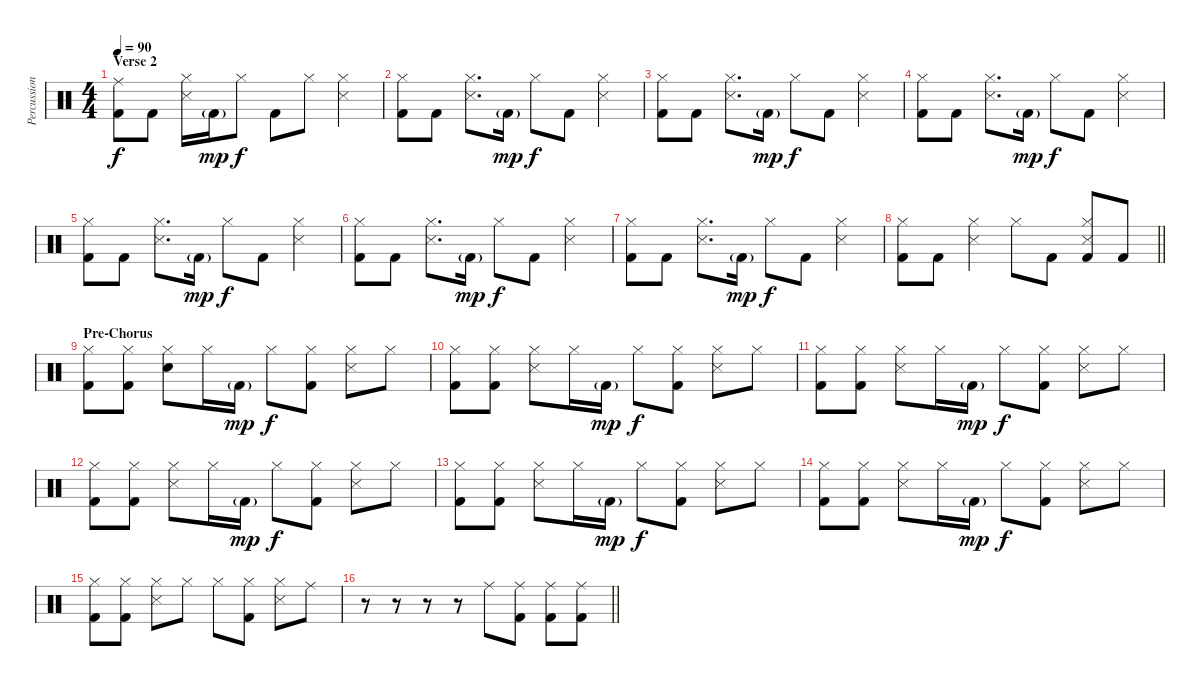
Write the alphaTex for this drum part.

\track ("Percussion" "Percussion") {instrument percussion}
\staff {score}
\articulation defaults
\ts (4 4)
\section ("" "Verse 2")
\tempo 90
\clef neutral
\ks c
("Ride (middle)" "Kick (hit) 2").8{dy f} "Kick (hit) 2".8 ("Hi-Hat (closed)" "Snare (side stick) 3").16 "Kick (hit) 2"{g}.16{dy mp} "Hi-Hat (closed)".8{dy f} "Kick (hit) 2".8 "Hi-Hat (closed)".8 ("Hi-Hat (closed)" "Snare (side stick) 3").4 |
("Hi-Hat (closed)" "Kick (hit) 2").8 "Kick (hit) 2".8 ("Hi-Hat (closed)" "Snare (side stick) 3").8{d} "Kick (hit) 2"{g}.16{dy mp} "Hi-Hat (closed)".8{dy f} "Kick (hit) 2".8 ("Hi-Hat (closed)" "Snare (side stick) 3").4 |
("Hi-Hat (closed)" "Kick (hit) 2").8 "Kick (hit) 2".8 ("Hi-Hat (closed)" "Snare (side stick) 3").8{d} "Kick (hit) 2"{g}.16{dy mp} "Hi-Hat (closed)".8{dy f} "Kick (hit) 2".8 ("Hi-Hat (closed)" "Snare (side stick) 3").4 |
("Hi-Hat (closed)" "Kick (hit) 2").8 "Kick (hit) 2".8 ("Hi-Hat (closed)" "Snare (side stick) 3").8{d} "Kick (hit) 2"{g}.16{dy mp} "Hi-Hat (closed)".8{dy f} "Kick (hit) 2".8 ("Hi-Hat (closed)" "Snare (side stick) 3").4 |
("Hi-Hat (closed)" "Kick (hit) 2").8 "Kick (hit) 2".8 ("Hi-Hat (closed)" "Snare (side stick) 3").8{d} "Kick (hit) 2"{g}.16{dy mp} "Hi-Hat (closed)".8{dy f} "Kick (hit) 2".8 ("Hi-Hat (closed)" "Snare (side stick) 3").4 |
("Hi-Hat (closed)" "Kick (hit) 2").8 "Kick (hit) 2".8 ("Hi-Hat (closed)" "Snare (side stick) 3").8{d} "Kick (hit) 2"{g}.16{dy mp} "Hi-Hat (closed)".8{dy f} "Kick (hit) 2".8 ("Hi-Hat (closed)" "Snare (side stick) 3").4 |
("Hi-Hat (closed)" "Kick (hit) 2").8 "Kick (hit) 2".8 ("Hi-Hat (closed)" "Snare (side stick) 3").8{d} "Kick (hit) 2"{g}.16{dy mp} "Hi-Hat (closed)".8{dy f} "Kick (hit) 2".8 ("Hi-Hat (closed)" "Snare (side stick) 3").4 |
\barLineRight lightlight
("Hi-Hat (closed)" "Kick (hit) 2").8 "Kick (hit) 2".8 ("Hi-Hat (closed)" "Snare (side stick) 3").4 "Hi-Hat (closed)".8 "Kick (hit) 2".8 ("Hi-Hat (closed)" "Snare (side stick) 3" "Kick (hit) 2").8 "Kick (hit) 2".8 |
\section ("" "Pre-Chorus")
("Hi-Hat (closed)" "Kick (hit) 2").8 ("Hi-Hat (closed)" "Kick (hit) 2").8 ("Hi-Hat (closed)" "Electric Snare (hit)").8 "Hi-Hat (closed)".16 "Kick (hit) 2"{g}.16{dy mp} "Hi-Hat (closed)".8{dy f} ("Hi-Hat (closed)" "Kick (hit) 2").8 ("Hi-Hat (closed)" "Snare (side stick) 3").8 "Hi-Hat (closed)".8 |
("Hi-Hat (closed)" "Kick (hit) 2").8 ("Hi-Hat (closed)" "Kick (hit) 2").8 ("Hi-Hat (closed)" "Snare (side stick) 3").8 "Hi-Hat (closed)".16 "Kick (hit) 2"{g}.16{dy mp} "Hi-Hat (closed)".8{dy f} ("Hi-Hat (closed)" "Kick (hit) 2").8 ("Hi-Hat (closed)" "Snare (side stick) 3").8 "Hi-Hat (closed)".8 |
("Hi-Hat (closed)" "Kick (hit) 2").8 ("Hi-Hat (closed)" "Kick (hit) 2").8 ("Hi-Hat (closed)" "Snare (side stick) 3").8 "Hi-Hat (closed)".16 "Kick (hit) 2"{g}.16{dy mp} "Hi-Hat (closed)".8{dy f} ("Hi-Hat (closed)" "Kick (hit) 2").8 ("Hi-Hat (closed)" "Snare (side stick) 3").8 "Hi-Hat (closed)".8 |
("Hi-Hat (closed)" "Kick (hit) 2").8 ("Hi-Hat (closed)" "Kick (hit) 2").8 ("Hi-Hat (closed)" "Snare (side stick) 3").8 "Hi-Hat (closed)".16 "Kick (hit) 2"{g}.16{dy mp} "Hi-Hat (closed)".8{dy f} ("Hi-Hat (closed)" "Kick (hit) 2").8 ("Hi-Hat (closed)" "Snare (side stick) 3").8 "Hi-Hat (closed)".8 |
("Hi-Hat (closed)" "Kick (hit) 2").8 ("Hi-Hat (closed)" "Kick (hit) 2").8 ("Hi-Hat (closed)" "Snare (side stick) 3").8 "Hi-Hat (closed)".16 "Kick (hit) 2"{g}.16{dy mp} "Hi-Hat (closed)".8{dy f} ("Hi-Hat (closed)" "Kick (hit) 2").8 ("Hi-Hat (closed)" "Snare (side stick) 3").8 "Hi-Hat (closed)".8 |
("Hi-Hat (closed)" "Kick (hit) 2").8 ("Hi-Hat (closed)" "Kick (hit) 2").8 ("Hi-Hat (closed)" "Snare (side stick) 3").8 "Hi-Hat (closed)".16 "Kick (hit) 2"{g}.16{dy mp} "Hi-Hat (closed)".8{dy f} ("Hi-Hat (closed)" "Kick (hit) 2").8 ("Hi-Hat (closed)" "Snare (side stick) 3").8 "Hi-Hat (closed)".8 |
("Hi-Hat (closed)" "Kick (hit) 2").8 ("Hi-Hat (closed)" "Kick (hit) 2").8 ("Hi-Hat (closed)" "Snare (side stick) 3").8 "Hi-Hat (closed)".8 "Hi-Hat (closed)".8 ("Hi-Hat (closed)" "Kick (hit) 2").8 ("Hi-Hat (closed)" "Snare (side stick) 3").8 "Ride (middle)".8 |
\barLineRight lightlight
r.8 r.8 r.8 r.8 "Ride (middle)".8 ("Ride (middle)" "Kick (hit) 2").8 ("Ride (middle)" "Kick (hit) 2").8 ("Ride (middle)" "Kick (hit) 2").8
